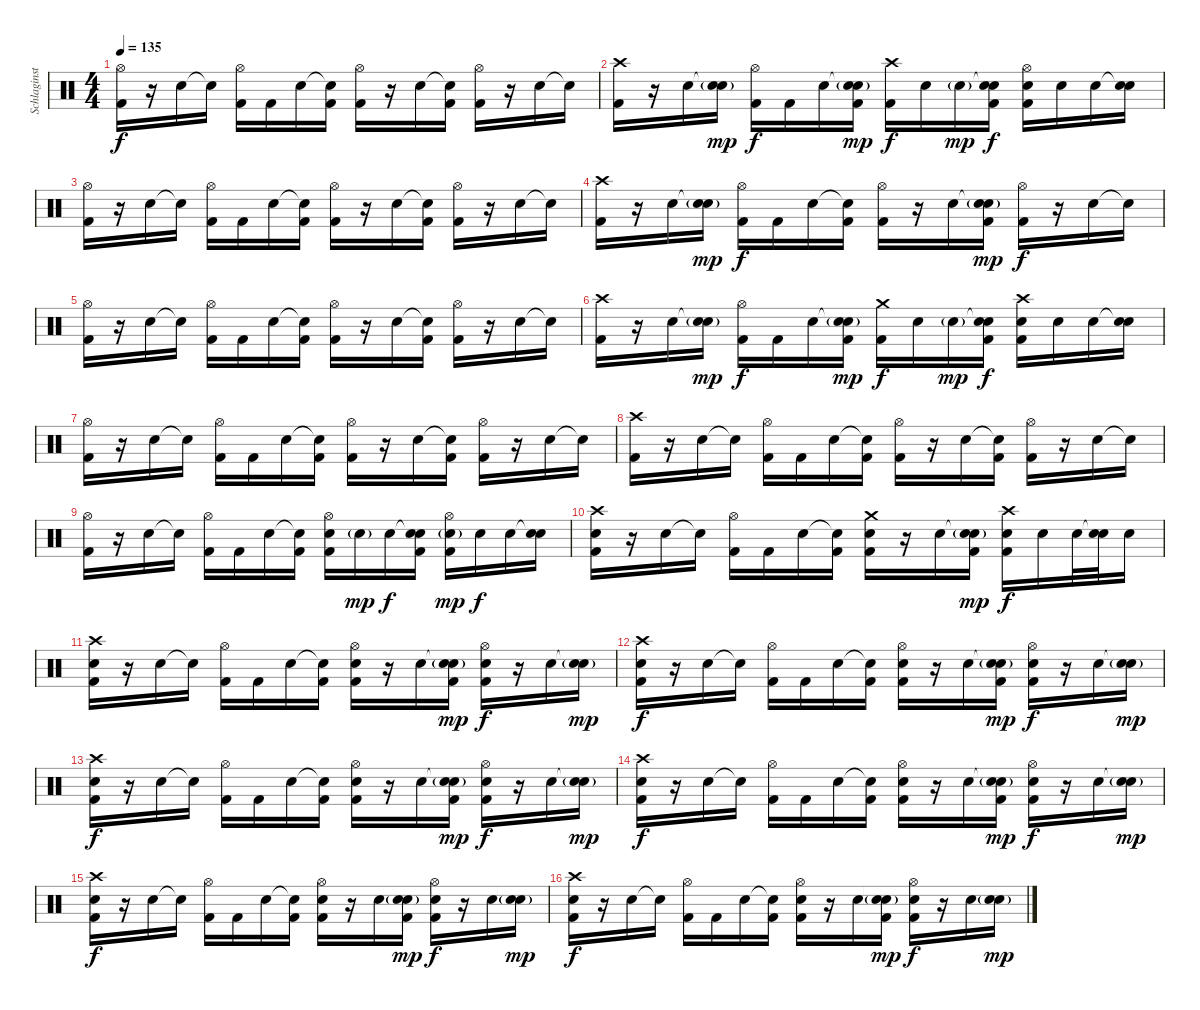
\track ("Schlaginstrumente - Auswahl" "Schlaginst") {instrument percussion}
\staff {score}
\articulation defaults
\ts (4 4)
\tempo 135
\clef neutral
\ks c
("Hi-Hat (open)" "Kick (hit) 2").16{dy f} r.16 "Snare (hit) 2".16 "Snare (hit)"{t}.16 ("Hi-Hat (open)" "Kick (hit) 2").16 "Kick (hit) 2".16 "Snare (hit) 2".16 ("Snare (hit)"{t} "Kick (hit) 2").16 ("Hi-Hat (open)" "Kick (hit) 2").16 r.16 "Snare (hit) 2".16 ("Snare (hit)"{t} "Kick (hit) 2").16 ("Hi-Hat (open)" "Kick (hit) 2").16 r.16 "Snare (hit) 2".16 "Snare (hit)"{t}.16 |
("Crash high (hit)" "Kick (hit) 2").16 r.16 "Snare (hit) 2".16 ("Snare (hit)"{t} "Snare (hit) 2"{g}).16{dy mp} ("Hi-Hat (open)" "Kick (hit) 2").16{dy f} "Kick (hit) 2".16 "Snare (hit) 2".16 ("Snare (hit)"{t} "Snare (hit) 2"{g} "Kick (hit) 2").16{dy mp} ("Crash high (hit)" "Kick (hit) 2").16{dy f} "Snare (hit) 2".16 "Snare (hit) 2"{g}.16{dy mp} ("Snare (hit)"{t} "Snare (hit) 2" "Kick (hit) 2").16{dy f} ("Hi-Hat (open)" "Snare (hit) 2" "Kick (hit) 2").16 "Snare (hit) 2".16 "Snare (hit) 2".16 ("Snare (hit)"{t} "Snare (hit) 2").16 |
("Hi-Hat (open)" "Kick (hit) 2").16 r.16 "Snare (hit) 2".16 "Snare (hit)"{t}.16 ("Hi-Hat (open)" "Kick (hit) 2").16 "Kick (hit) 2".16 "Snare (hit) 2".16 ("Snare (hit)"{t} "Kick (hit) 2").16 ("Hi-Hat (open)" "Kick (hit) 2").16 r.16 "Snare (hit) 2".16 ("Snare (hit)"{t} "Kick (hit) 2").16 ("Hi-Hat (open)" "Kick (hit) 2").16 r.16 "Snare (hit) 2".16 "Snare (hit)"{t}.16 |
("Crash high (hit)" "Kick (hit) 2").16 r.16 "Snare (hit) 2".16 ("Snare (hit)"{t} "Snare (hit) 2"{g}).16{dy mp} ("Hi-Hat (open)" "Kick (hit) 2").16{dy f} "Kick (hit) 2".16 "Snare (hit) 2".16 ("Snare (hit)"{t} "Kick (hit) 2").16 ("Hi-Hat (open)" "Kick (hit) 2").16 r.16 "Snare (hit) 2".16 ("Snare (hit)"{t} "Snare (hit) 2"{g} "Kick (hit) 2").16{dy mp} ("Hi-Hat (open)" "Kick (hit) 2").16{dy f} r.16 "Snare (hit) 2".16 "Snare (hit)"{t}.16 |
("Hi-Hat (open)" "Kick (hit) 2").16 r.16 "Snare (hit) 2".16 "Snare (hit)"{t}.16 ("Hi-Hat (open)" "Kick (hit) 2").16 "Kick (hit) 2".16 "Snare (hit) 2".16 ("Snare (hit)"{t} "Kick (hit) 2").16 ("Hi-Hat (open)" "Kick (hit) 2").16 r.16 "Snare (hit) 2".16 ("Snare (hit)"{t} "Kick (hit) 2").16 ("Hi-Hat (open)" "Kick (hit) 2").16 r.16 "Snare (hit) 2".16 "Snare (hit)"{t}.16 |
("Crash high (hit)" "Kick (hit) 2").16 r.16 "Snare (hit) 2".16 ("Snare (hit)"{t} "Snare (hit) 2"{g}).16{dy mp} ("Hi-Hat (open)" "Kick (hit) 2").16{dy f} "Kick (hit) 2".16 "Snare (hit) 2".16 ("Snare (hit)"{t} "Snare (hit) 2"{g} "Kick (hit) 2").16{dy mp} ("Crash medium (hit)" "Kick (hit) 2").16{dy f} "Snare (hit) 2".16 "Snare (hit) 2"{g}.16{dy mp} ("Snare (hit)"{t} "Snare (hit) 2" "Kick (hit) 2").16{dy f} ("Crash high (hit)" "Snare (hit) 2" "Kick (hit) 2").16 "Snare (hit) 2".16 "Snare (hit) 2".16 ("Snare (hit)"{t} "Snare (hit) 2").16 |
("Hi-Hat (open)" "Kick (hit) 2").16 r.16 "Snare (hit) 2".16 "Snare (hit)"{t}.16 ("Hi-Hat (open)" "Kick (hit) 2").16 "Kick (hit) 2".16 "Snare (hit) 2".16 ("Snare (hit)"{t} "Kick (hit) 2").16 ("Hi-Hat (open)" "Kick (hit) 2").16 r.16 "Snare (hit) 2".16 ("Snare (hit)"{t} "Kick (hit) 2").16 ("Hi-Hat (open)" "Kick (hit) 2").16 r.16 "Snare (hit) 2".16 "Snare (hit)"{t}.16 |
("Crash high (hit)" "Kick (hit) 2").16 r.16 "Snare (hit) 2".16 "Snare (hit)"{t}.16 ("Hi-Hat (open)" "Kick (hit) 2").16 "Kick (hit) 2".16 "Snare (hit) 2".16 ("Snare (hit)"{t} "Kick (hit) 2").16 ("Hi-Hat (open)" "Kick (hit) 2").16 r.16 "Snare (hit) 2".16 ("Snare (hit)"{t} "Kick (hit) 2").16 ("Hi-Hat (open)" "Kick (hit) 2").16 r.16 "Snare (hit) 2".16 "Snare (hit)"{t}.16 |
("Hi-Hat (open)" "Kick (hit) 2").16 r.16 "Snare (hit) 2".16 "Snare (hit)"{t}.16 ("Hi-Hat (open)" "Kick (hit) 2").16 "Kick (hit) 2".16 "Snare (hit) 2".16 ("Snare (hit)"{t} "Kick (hit) 2").16 ("Hi-Hat (open)" "Snare (hit) 2" "Kick (hit) 2").16 "Snare (hit) 2"{g}.16{dy mp} "Snare (hit) 2".16{dy f} ("Snare (hit)"{t} "Snare (hit) 2" "Kick (hit) 2").16 ("Hi-Hat (open)" "Snare (hit) 2"{g} "Kick (hit) 2").16{dy mp} "Snare (hit) 2".16{dy f} "Snare (hit) 2".16 ("Snare (hit)"{t} "Snare (hit) 2").16 |
("Crash high (hit)" "Snare (hit) 2" "Kick (hit) 2").16 r.16 "Snare (hit) 2".16 "Snare (hit)"{t}.16 ("Hi-Hat (open)" "Kick (hit) 2").16 "Kick (hit) 2".16 "Snare (hit) 2".16 ("Snare (hit)"{t} "Kick (hit) 2").16 ("Crash medium (hit)" "Snare (hit) 2" "Kick (hit) 2").16 r.16 "Snare (hit) 2".16 ("Snare (hit)"{t} "Snare (hit) 2"{g} "Kick (hit) 2").16{dy mp} ("Crash high (hit)" "Snare (hit) 2" "Kick (hit) 2").16{dy f} "Snare (hit) 2".16 "Snare (hit) 2".32 ("Snare (hit)"{t} "Snare (hit) 2").32 "Snare (hit) 2".16 |
("Crash high (hit)" "Snare (hit) 2" "Kick (hit) 2").16 r.16 "Snare (hit) 2".16 "Snare (hit)"{t}.16 ("Hi-Hat (open)" "Kick (hit) 2").16 "Kick (hit) 2".16 "Snare (hit) 2".16 ("Snare (hit)"{t} "Kick (hit) 2").16 ("Hi-Hat (open)" "Snare (hit) 2" "Kick (hit) 2").16 r.16 "Snare (hit) 2".16 ("Snare (hit)"{t} "Snare (hit) 2"{g} "Kick (hit) 2").16{dy mp} ("Hi-Hat (open)" "Snare (hit) 2" "Kick (hit) 2").16{dy f} r.16 "Snare (hit) 2".16 ("Snare (hit)"{t} "Snare (hit) 2"{g}).16{dy mp} |
("Crash high (hit)" "Snare (hit) 2" "Kick (hit) 2").16{dy f} r.16 "Snare (hit) 2".16 "Snare (hit)"{t}.16 ("Hi-Hat (open)" "Kick (hit) 2").16 "Kick (hit) 2".16 "Snare (hit) 2".16 ("Snare (hit)"{t} "Kick (hit) 2").16 ("Hi-Hat (open)" "Snare (hit) 2" "Kick (hit) 2").16 r.16 "Snare (hit) 2".16 ("Snare (hit)"{t} "Snare (hit) 2"{g} "Kick (hit) 2").16{dy mp} ("Hi-Hat (open)" "Snare (hit) 2" "Kick (hit) 2").16{dy f} r.16 "Snare (hit) 2".16 ("Snare (hit)"{t} "Snare (hit) 2"{g}).16{dy mp} |
("Crash high (hit)" "Snare (hit) 2" "Kick (hit) 2").16{dy f} r.16 "Snare (hit) 2".16 "Snare (hit)"{t}.16 ("Hi-Hat (open)" "Kick (hit) 2").16 "Kick (hit) 2".16 "Snare (hit) 2".16 ("Snare (hit)"{t} "Kick (hit) 2").16 ("Hi-Hat (open)" "Snare (hit) 2" "Kick (hit) 2").16 r.16 "Snare (hit) 2".16 ("Snare (hit)"{t} "Snare (hit) 2"{g} "Kick (hit) 2").16{dy mp} ("Hi-Hat (open)" "Snare (hit) 2" "Kick (hit) 2").16{dy f} r.16 "Snare (hit) 2".16 ("Snare (hit)"{t} "Snare (hit) 2"{g}).16{dy mp} |
("Crash high (hit)" "Snare (hit) 2" "Kick (hit) 2").16{dy f} r.16 "Snare (hit) 2".16 "Snare (hit)"{t}.16 ("Hi-Hat (open)" "Kick (hit) 2").16 "Kick (hit) 2".16 "Snare (hit) 2".16 ("Snare (hit)"{t} "Kick (hit) 2").16 ("Hi-Hat (open)" "Snare (hit) 2" "Kick (hit) 2").16 r.16 "Snare (hit) 2".16 ("Snare (hit)"{t} "Snare (hit) 2"{g} "Kick (hit) 2").16{dy mp} ("Hi-Hat (open)" "Snare (hit) 2" "Kick (hit) 2").16{dy f} r.16 "Snare (hit) 2".16 ("Snare (hit)"{t} "Snare (hit) 2"{g}).16{dy mp} |
("Crash high (hit)" "Snare (hit) 2" "Kick (hit) 2").16{dy f} r.16 "Snare (hit) 2".16 "Snare (hit)"{t}.16 ("Hi-Hat (open)" "Kick (hit) 2").16 "Kick (hit) 2".16 "Snare (hit) 2".16 ("Snare (hit)"{t} "Kick (hit) 2").16 ("Hi-Hat (open)" "Snare (hit) 2" "Kick (hit) 2").16 r.16 "Snare (hit) 2".16 ("Snare (hit)"{t} "Snare (hit) 2"{g} "Kick (hit) 2").16{dy mp} ("Hi-Hat (open)" "Snare (hit) 2" "Kick (hit) 2").16{dy f} r.16 "Snare (hit) 2".16 ("Snare (hit)"{t} "Snare (hit) 2"{g}).16{dy mp} |
("Crash high (hit)" "Snare (hit) 2" "Kick (hit) 2").16{dy f} r.16 "Snare (hit) 2".16 "Snare (hit)"{t}.16 ("Hi-Hat (open)" "Kick (hit) 2").16 "Kick (hit) 2".16 "Snare (hit) 2".16 ("Snare (hit)"{t} "Kick (hit) 2").16 ("Hi-Hat (open)" "Snare (hit) 2" "Kick (hit) 2").16 r.16 "Snare (hit) 2".16 ("Snare (hit)"{t} "Snare (hit) 2"{g} "Kick (hit) 2").16{dy mp} ("Hi-Hat (open)" "Snare (hit) 2" "Kick (hit) 2").16{dy f} r.16 "Snare (hit) 2".16 ("Snare (hit)"{t} "Snare (hit) 2"{g}).16{dy mp}
